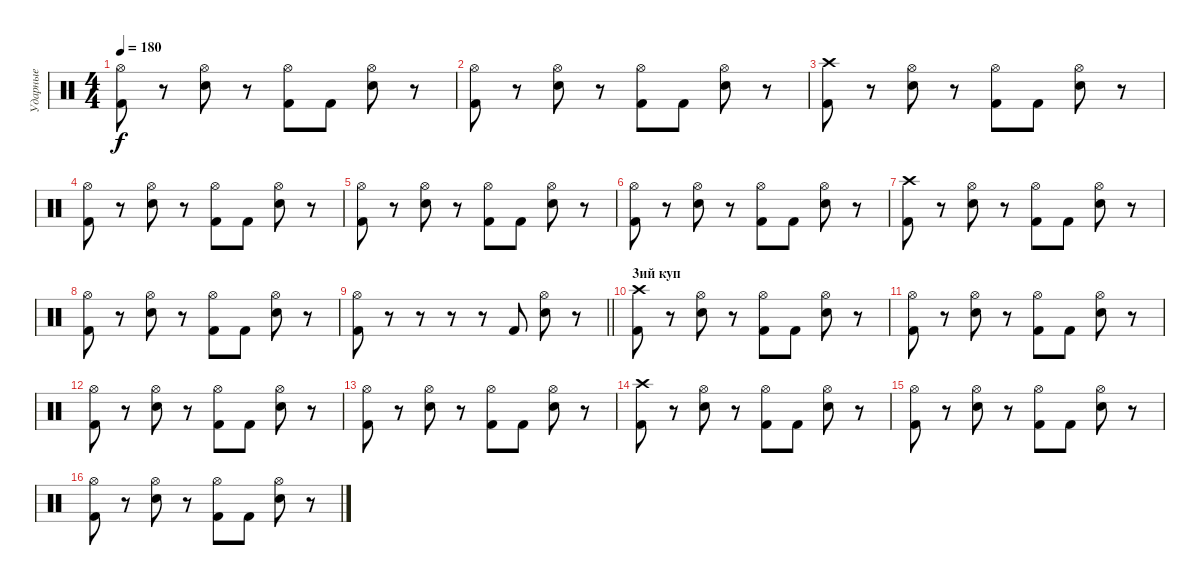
\track ("Ударные" "Ударные") {instrument percussion}
\staff {score}
\articulation defaults
\ts (4 4)
\tempo 180
\clef neutral
\ks c
("Hi-Hat (open)" "Kick (hit) 2").8{dy f} r.8 ("Hi-Hat (open)" "Electric Snare (hit)").8 r.8 ("Hi-Hat (open)" "Kick (hit) 2").8 "Kick (hit) 2".8 ("Hi-Hat (open)" "Electric Snare (hit)").8 r.8 |
("Hi-Hat (open)" "Kick (hit) 2").8 r.8 ("Hi-Hat (open)" "Electric Snare (hit)").8 r.8 ("Hi-Hat (open)" "Kick (hit) 2").8 "Kick (hit) 2".8 ("Hi-Hat (open)" "Electric Snare (hit)").8 r.8 |
("Crash high (hit)" "Kick (hit) 2").8 r.8 ("Hi-Hat (open)" "Electric Snare (hit)").8 r.8 ("Hi-Hat (open)" "Kick (hit) 2").8 "Kick (hit) 2".8 ("Hi-Hat (open)" "Electric Snare (hit)").8 r.8 |
("Hi-Hat (open)" "Kick (hit) 2").8 r.8 ("Hi-Hat (open)" "Electric Snare (hit)").8 r.8 ("Hi-Hat (open)" "Kick (hit) 2").8 "Kick (hit) 2".8 ("Hi-Hat (open)" "Electric Snare (hit)").8 r.8 |
("Hi-Hat (open)" "Kick (hit) 2").8 r.8 ("Hi-Hat (open)" "Electric Snare (hit)").8 r.8 ("Hi-Hat (open)" "Kick (hit) 2").8 "Kick (hit) 2".8 ("Hi-Hat (open)" "Electric Snare (hit)").8 r.8 |
("Hi-Hat (open)" "Kick (hit) 2").8 r.8 ("Hi-Hat (open)" "Electric Snare (hit)").8 r.8 ("Hi-Hat (open)" "Kick (hit) 2").8 "Kick (hit) 2".8 ("Hi-Hat (open)" "Electric Snare (hit)").8 r.8 |
("Crash high (hit)" "Kick (hit) 2").8 r.8 ("Hi-Hat (open)" "Electric Snare (hit)").8 r.8 ("Hi-Hat (open)" "Kick (hit) 2").8 "Kick (hit) 2".8 ("Hi-Hat (open)" "Electric Snare (hit)").8 r.8 |
("Hi-Hat (open)" "Kick (hit) 2").8 r.8 ("Hi-Hat (open)" "Electric Snare (hit)").8 r.8 ("Hi-Hat (open)" "Kick (hit) 2").8 "Kick (hit) 2".8 ("Hi-Hat (open)" "Electric Snare (hit)").8 r.8 |
\barLineRight lightlight
("Hi-Hat (open)" "Kick (hit) 2").8 r.8 r.8 r.8 r.8 "Kick (hit) 2".8 ("Hi-Hat (open)" "Electric Snare (hit)").8 r.8 |
\section ("" "3ий куп")
("Crash high (hit)" "Kick (hit) 2").8 r.8 ("Hi-Hat (open)" "Electric Snare (hit)").8 r.8 ("Hi-Hat (open)" "Kick (hit) 2").8 "Kick (hit) 2".8 ("Hi-Hat (open)" "Electric Snare (hit)").8 r.8 |
("Hi-Hat (open)" "Kick (hit) 2").8 r.8 ("Hi-Hat (open)" "Electric Snare (hit)").8 r.8 ("Hi-Hat (open)" "Kick (hit) 2").8 "Kick (hit) 2".8 ("Hi-Hat (open)" "Electric Snare (hit)").8 r.8 |
("Hi-Hat (open)" "Kick (hit) 2").8 r.8 ("Hi-Hat (open)" "Electric Snare (hit)").8 r.8 ("Hi-Hat (open)" "Kick (hit) 2").8 "Kick (hit) 2".8 ("Hi-Hat (open)" "Electric Snare (hit)").8 r.8 |
("Hi-Hat (open)" "Kick (hit) 2").8 r.8 ("Hi-Hat (open)" "Electric Snare (hit)").8 r.8 ("Hi-Hat (open)" "Kick (hit) 2").8 "Kick (hit) 2".8 ("Hi-Hat (open)" "Electric Snare (hit)").8 r.8 |
("Crash high (hit)" "Kick (hit) 2").8 r.8 ("Hi-Hat (open)" "Electric Snare (hit)").8 r.8 ("Hi-Hat (open)" "Kick (hit) 2").8 "Kick (hit) 2".8 ("Hi-Hat (open)" "Electric Snare (hit)").8 r.8 |
("Hi-Hat (open)" "Kick (hit) 2").8 r.8 ("Hi-Hat (open)" "Electric Snare (hit)").8 r.8 ("Hi-Hat (open)" "Kick (hit) 2").8 "Kick (hit) 2".8 ("Hi-Hat (open)" "Electric Snare (hit)").8 r.8 |
("Hi-Hat (open)" "Kick (hit) 2").8 r.8 ("Hi-Hat (open)" "Electric Snare (hit)").8 r.8 ("Hi-Hat (open)" "Kick (hit) 2").8 "Kick (hit) 2".8 ("Hi-Hat (open)" "Electric Snare (hit)").8 r.8
